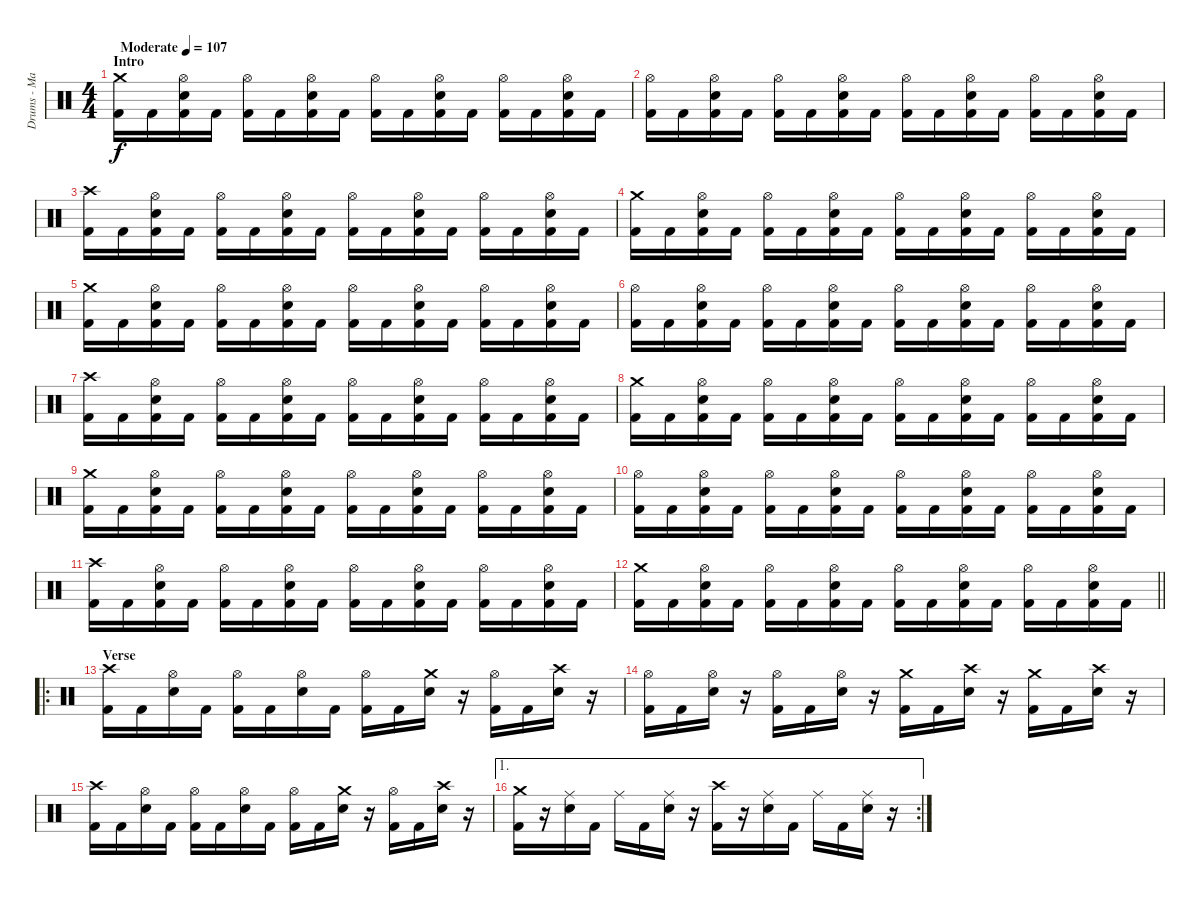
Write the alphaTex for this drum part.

\track ("Drums - Matt Thompson" "Drums - Ma") {instrument percussion}
\staff {score}
\articulation defaults
\ts (4 4)
\section ("" "Intro")
\tempo (107 "Moderate")
\clef neutral
\ks c
("Crash medium (hit)" "Kick (hit) 2").16{dy f} "Kick (hit) 2".16 ("Hi-Hat (open)" "Snare (hit) 2" "Kick (hit) 2").16 "Kick (hit) 2".16 ("Hi-Hat (open)" "Kick (hit) 2").16 "Kick (hit) 2".16 ("Hi-Hat (open)" "Snare (hit) 2" "Kick (hit) 2").16 "Kick (hit) 2".16 ("Hi-Hat (open)" "Kick (hit) 2").16 "Kick (hit) 2".16 ("Hi-Hat (open)" "Snare (hit) 2" "Kick (hit) 2").16 "Kick (hit) 2".16 ("Hi-Hat (open)" "Kick (hit) 2").16 "Kick (hit) 2".16 ("Hi-Hat (open)" "Snare (hit) 2" "Kick (hit) 2").16 "Kick (hit) 2".16 |
("Hi-Hat (open)" "Kick (hit) 2").16 "Kick (hit) 2".16 ("Hi-Hat (open)" "Snare (hit) 2" "Kick (hit) 2").16 "Kick (hit) 2".16 ("Hi-Hat (open)" "Kick (hit) 2").16 "Kick (hit) 2".16 ("Hi-Hat (open)" "Snare (hit) 2" "Kick (hit) 2").16 "Kick (hit) 2".16 ("Hi-Hat (open)" "Kick (hit) 2").16 "Kick (hit) 2".16 ("Hi-Hat (open)" "Snare (hit) 2" "Kick (hit) 2").16 "Kick (hit) 2".16 ("Hi-Hat (open)" "Kick (hit) 2").16 "Kick (hit) 2".16 ("Hi-Hat (open)" "Snare (hit) 2" "Kick (hit) 2").16 "Kick (hit) 2".16 |
("Crash high (hit)" "Kick (hit) 2").16 "Kick (hit) 2".16 ("Hi-Hat (open)" "Snare (hit) 2" "Kick (hit) 2").16 "Kick (hit) 2".16 ("Hi-Hat (open)" "Kick (hit) 2").16 "Kick (hit) 2".16 ("Hi-Hat (open)" "Snare (hit) 2" "Kick (hit) 2").16 "Kick (hit) 2".16 ("Hi-Hat (open)" "Kick (hit) 2").16 "Kick (hit) 2".16 ("Hi-Hat (open)" "Snare (hit) 2" "Kick (hit) 2").16 "Kick (hit) 2".16 ("Hi-Hat (open)" "Kick (hit) 2").16 "Kick (hit) 2".16 ("Hi-Hat (open)" "Snare (hit) 2" "Kick (hit) 2").16 "Kick (hit) 2".16 |
("Crash medium (hit)" "Kick (hit) 2").16 "Kick (hit) 2".16 ("Hi-Hat (open)" "Snare (hit) 2" "Kick (hit) 2").16 "Kick (hit) 2".16 ("Hi-Hat (open)" "Kick (hit) 2").16 "Kick (hit) 2".16 ("Hi-Hat (open)" "Snare (hit) 2" "Kick (hit) 2").16 "Kick (hit) 2".16 ("Hi-Hat (open)" "Kick (hit) 2").16 "Kick (hit) 2".16 ("Hi-Hat (open)" "Snare (hit) 2" "Kick (hit) 2").16 "Kick (hit) 2".16 ("Hi-Hat (open)" "Kick (hit) 2").16 "Kick (hit) 2".16 ("Hi-Hat (open)" "Snare (hit) 2" "Kick (hit) 2").16 "Kick (hit) 2".16 |
("Crash medium (hit)" "Kick (hit) 2").16 "Kick (hit) 2".16 ("Hi-Hat (open)" "Snare (hit) 2" "Kick (hit) 2").16 "Kick (hit) 2".16 ("Hi-Hat (open)" "Kick (hit) 2").16 "Kick (hit) 2".16 ("Hi-Hat (open)" "Snare (hit) 2" "Kick (hit) 2").16 "Kick (hit) 2".16 ("Hi-Hat (open)" "Kick (hit) 2").16 "Kick (hit) 2".16 ("Hi-Hat (open)" "Snare (hit) 2" "Kick (hit) 2").16 "Kick (hit) 2".16 ("Hi-Hat (open)" "Kick (hit) 2").16 "Kick (hit) 2".16 ("Hi-Hat (open)" "Snare (hit) 2" "Kick (hit) 2").16 "Kick (hit) 2".16 |
("Hi-Hat (open)" "Kick (hit) 2").16 "Kick (hit) 2".16 ("Hi-Hat (open)" "Snare (hit) 2" "Kick (hit) 2").16 "Kick (hit) 2".16 ("Hi-Hat (open)" "Kick (hit) 2").16 "Kick (hit) 2".16 ("Hi-Hat (open)" "Snare (hit) 2" "Kick (hit) 2").16 "Kick (hit) 2".16 ("Hi-Hat (open)" "Kick (hit) 2").16 "Kick (hit) 2".16 ("Hi-Hat (open)" "Snare (hit) 2" "Kick (hit) 2").16 "Kick (hit) 2".16 ("Hi-Hat (open)" "Kick (hit) 2").16 "Kick (hit) 2".16 ("Hi-Hat (open)" "Snare (hit) 2" "Kick (hit) 2").16 "Kick (hit) 2".16 |
("Crash high (hit)" "Kick (hit) 2").16 "Kick (hit) 2".16 ("Hi-Hat (open)" "Snare (hit) 2" "Kick (hit) 2").16 "Kick (hit) 2".16 ("Hi-Hat (open)" "Kick (hit) 2").16 "Kick (hit) 2".16 ("Hi-Hat (open)" "Snare (hit) 2" "Kick (hit) 2").16 "Kick (hit) 2".16 ("Hi-Hat (open)" "Kick (hit) 2").16 "Kick (hit) 2".16 ("Hi-Hat (open)" "Snare (hit) 2" "Kick (hit) 2").16 "Kick (hit) 2".16 ("Hi-Hat (open)" "Kick (hit) 2").16 "Kick (hit) 2".16 ("Hi-Hat (open)" "Snare (hit) 2" "Kick (hit) 2").16 "Kick (hit) 2".16 |
("Crash medium (hit)" "Kick (hit) 2").16 "Kick (hit) 2".16 ("Hi-Hat (open)" "Snare (hit) 2" "Kick (hit) 2").16 "Kick (hit) 2".16 ("Hi-Hat (open)" "Kick (hit) 2").16 "Kick (hit) 2".16 ("Hi-Hat (open)" "Snare (hit) 2" "Kick (hit) 2").16 "Kick (hit) 2".16 ("Hi-Hat (open)" "Kick (hit) 2").16 "Kick (hit) 2".16 ("Hi-Hat (open)" "Snare (hit) 2" "Kick (hit) 2").16 "Kick (hit) 2".16 ("Hi-Hat (open)" "Kick (hit) 2").16 "Kick (hit) 2".16 ("Hi-Hat (open)" "Snare (hit) 2" "Kick (hit) 2").16 "Kick (hit) 2".16 |
("Crash medium (hit)" "Kick (hit) 2").16 "Kick (hit) 2".16 ("Hi-Hat (open)" "Snare (hit) 2" "Kick (hit) 2").16 "Kick (hit) 2".16 ("Hi-Hat (open)" "Kick (hit) 2").16 "Kick (hit) 2".16 ("Hi-Hat (open)" "Snare (hit) 2" "Kick (hit) 2").16 "Kick (hit) 2".16 ("Hi-Hat (open)" "Kick (hit) 2").16 "Kick (hit) 2".16 ("Hi-Hat (open)" "Snare (hit) 2" "Kick (hit) 2").16 "Kick (hit) 2".16 ("Hi-Hat (open)" "Kick (hit) 2").16 "Kick (hit) 2".16 ("Hi-Hat (open)" "Snare (hit) 2" "Kick (hit) 2").16 "Kick (hit) 2".16 |
("Hi-Hat (open)" "Kick (hit) 2").16 "Kick (hit) 2".16 ("Hi-Hat (open)" "Snare (hit) 2" "Kick (hit) 2").16 "Kick (hit) 2".16 ("Hi-Hat (open)" "Kick (hit) 2").16 "Kick (hit) 2".16 ("Hi-Hat (open)" "Snare (hit) 2" "Kick (hit) 2").16 "Kick (hit) 2".16 ("Hi-Hat (open)" "Kick (hit) 2").16 "Kick (hit) 2".16 ("Hi-Hat (open)" "Snare (hit) 2" "Kick (hit) 2").16 "Kick (hit) 2".16 ("Hi-Hat (open)" "Kick (hit) 2").16 "Kick (hit) 2".16 ("Hi-Hat (open)" "Snare (hit) 2" "Kick (hit) 2").16 "Kick (hit) 2".16 |
("Crash high (hit)" "Kick (hit) 2").16 "Kick (hit) 2".16 ("Hi-Hat (open)" "Snare (hit) 2" "Kick (hit) 2").16 "Kick (hit) 2".16 ("Hi-Hat (open)" "Kick (hit) 2").16 "Kick (hit) 2".16 ("Hi-Hat (open)" "Snare (hit) 2" "Kick (hit) 2").16 "Kick (hit) 2".16 ("Hi-Hat (open)" "Kick (hit) 2").16 "Kick (hit) 2".16 ("Hi-Hat (open)" "Snare (hit) 2" "Kick (hit) 2").16 "Kick (hit) 2".16 ("Hi-Hat (open)" "Kick (hit) 2").16 "Kick (hit) 2".16 ("Hi-Hat (open)" "Snare (hit) 2" "Kick (hit) 2").16 "Kick (hit) 2".16 |
\barLineRight lightlight
("Crash medium (hit)" "Kick (hit) 2").16 "Kick (hit) 2".16 ("Hi-Hat (open)" "Snare (hit) 2" "Kick (hit) 2").16 "Kick (hit) 2".16 ("Hi-Hat (open)" "Kick (hit) 2").16 "Kick (hit) 2".16 ("Hi-Hat (open)" "Snare (hit) 2" "Kick (hit) 2").16 "Kick (hit) 2".16 ("Hi-Hat (open)" "Kick (hit) 2").16 "Kick (hit) 2".16 ("Hi-Hat (open)" "Snare (hit) 2" "Kick (hit) 2").16 "Kick (hit) 2".16 ("Hi-Hat (open)" "Kick (hit) 2").16 "Kick (hit) 2".16 ("Hi-Hat (open)" "Snare (hit) 2" "Kick (hit) 2").16 "Kick (hit) 2".16 |
\ro
\section ("" "Verse")
("Crash high (hit)" "Kick (hit) 2").16 "Kick (hit) 2".16 ("Hi-Hat (open)" "Snare (hit) 2").16 "Kick (hit) 2".16 ("Hi-Hat (open)" "Kick (hit) 2").16 "Kick (hit) 2".16 ("Hi-Hat (open)" "Snare (hit) 2").16 "Kick (hit) 2".16 ("Hi-Hat (open)" "Kick (hit) 2").16 "Kick (hit) 2".16 ("Crash medium (hit)" "Snare (hit) 2").16 r.16 ("Hi-Hat (open)" "Kick (hit) 2").16 "Kick (hit) 2".16 ("Crash high (hit)" "Snare (hit) 2").16 r.16 |
("Hi-Hat (open)" "Kick (hit) 2").16 "Kick (hit) 2".16 ("Hi-Hat (open)" "Snare (hit) 2").16 r.16 ("Hi-Hat (open)" "Kick (hit) 2").16 "Kick (hit) 2".16 ("Hi-Hat (open)" "Snare (hit) 2").16 r.16 ("Crash medium (hit)" "Kick (hit) 2").16 "Kick (hit) 2".16 ("Crash high (hit)" "Snare (hit) 2").16 r.16 ("Crash medium (hit)" "Kick (hit) 2").16 "Kick (hit) 2".16 ("Crash high (hit)" "Snare (hit) 2").16 r.16 |
("Crash high (hit)" "Kick (hit) 2").16 "Kick (hit) 2".16 ("Hi-Hat (open)" "Snare (hit) 2").16 "Kick (hit) 2".16 ("Hi-Hat (open)" "Kick (hit) 2").16 "Kick (hit) 2".16 ("Hi-Hat (open)" "Snare (hit) 2").16 "Kick (hit) 2".16 ("Hi-Hat (open)" "Kick (hit) 2").16 "Kick (hit) 2".16 ("Crash medium (hit)" "Snare (hit) 2").16 r.16 ("Hi-Hat (open)" "Kick (hit) 2").16 "Kick (hit) 2".16 ("Crash high (hit)" "Snare (hit) 2").16 r.16 |
\ae 1
\rc 2
("Crash medium (hit)" "Kick (hit) 2").16 r.16 ("Ride (middle)" "Snare (hit) 2").16 "Kick (hit) 2".16 "Ride (middle)".16 "Kick (hit) 2".16 ("Ride (middle)" "Snare (hit) 2").16 r.16 ("Crash high (hit)" "Kick (hit) 2").16 r.16 ("Ride (middle)" "Snare (hit) 2").16 "Kick (hit) 2".16 "Ride (middle)".16 "Kick (hit) 2".16 ("Ride (middle)" "Snare (hit) 2").16 r.16
